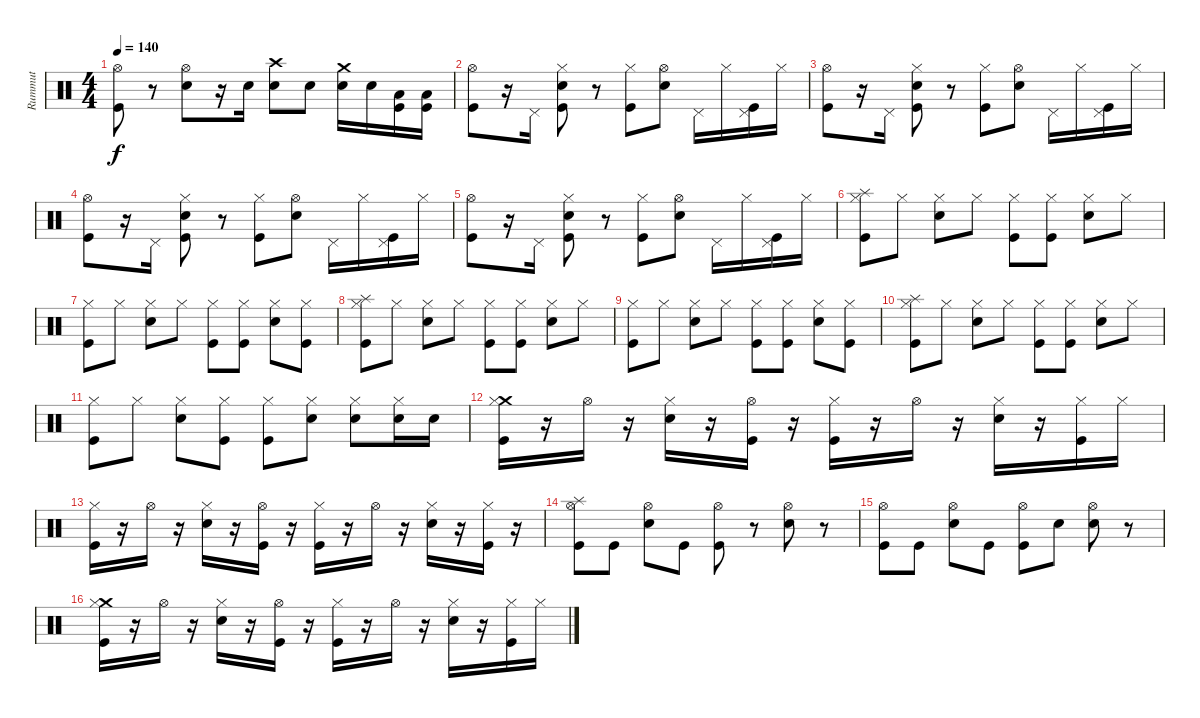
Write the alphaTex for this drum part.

\track ("Rummut" "Rummut") {instrument percussion}
\staff {score}
\articulation defaults
\ts (4 4)
\tempo 140
\clef neutral
\ks c
("Hi-Hat (open)" "Kick (hit)").8{dy f} r.8 ("Hi-Hat (open)" "Snare (hit) 2").8 r.16 "Snare (hit) 2".16 ("Crash high (hit)" "Snare (hit) 2").8 "Snare (hit) 2".8 ("Crash medium (hit)" "Snare (hit) 2").16 "Snare (hit) 2".16 ("Low Tom (hit)" "Kick (hit)").16 ("Low Tom (hit)" "Kick (hit)").16 |
("Hi-Hat (open)" "Kick (hit)").8 r.16 "Pedal Hi-Hat (hit)".16 ("Hi-Hat (closed)" "Kick (hit)" "Snare (hit) 2").8 r.8 ("Hi-Hat (closed)" "Kick (hit)").8 ("Hi-Hat (open)" "Snare (hit) 2").8 "Pedal Hi-Hat (hit)".16 "Hi-Hat (closed)".16 ("Pedal Hi-Hat (hit)" "Kick (hit)").16 "Hi-Hat (closed)".16 |
("Hi-Hat (open)" "Kick (hit)").8 r.16 "Pedal Hi-Hat (hit)".16 ("Hi-Hat (closed)" "Kick (hit)" "Snare (hit) 2").8 r.8 ("Hi-Hat (closed)" "Kick (hit)").8 ("Hi-Hat (open)" "Snare (hit) 2").8 "Pedal Hi-Hat (hit)".16 "Hi-Hat (closed)".16 ("Pedal Hi-Hat (hit)" "Kick (hit)").16 "Hi-Hat (closed)".16 |
("Hi-Hat (open)" "Kick (hit)").8 r.16 "Pedal Hi-Hat (hit)".16 ("Hi-Hat (closed)" "Kick (hit)" "Snare (hit) 2").8 r.8 ("Hi-Hat (closed)" "Kick (hit)").8 ("Hi-Hat (open)" "Snare (hit) 2").8 "Pedal Hi-Hat (hit)".16 "Hi-Hat (closed)".16 ("Pedal Hi-Hat (hit)" "Kick (hit)").16 "Hi-Hat (closed)".16 |
("Hi-Hat (open)" "Kick (hit)").8 r.16 "Pedal Hi-Hat (hit)".16 ("Hi-Hat (closed)" "Kick (hit)" "Snare (hit) 2").8 r.8 ("Hi-Hat (closed)" "Kick (hit)").8 ("Hi-Hat (open)" "Snare (hit) 2").8 "Pedal Hi-Hat (hit)".16 "Hi-Hat (closed)".16 ("Pedal Hi-Hat (hit)" "Kick (hit)").16 "Hi-Hat (closed)".16 |
("Splash (hit)" "Hi-Hat (closed)" "Kick (hit)").8 "Hi-Hat (closed)".8 ("Hi-Hat (closed)" "Snare (hit) 2").8 "Hi-Hat (closed)".8 ("Hi-Hat (closed)" "Kick (hit)").8 ("Hi-Hat (closed)" "Kick (hit)").8 ("Hi-Hat (closed)" "Snare (hit) 2").8 "Hi-Hat (closed)".8 |
("Hi-Hat (closed)" "Kick (hit)").8 "Hi-Hat (closed)".8 ("Hi-Hat (closed)" "Snare (hit) 2").8 "Hi-Hat (closed)".8 ("Hi-Hat (closed)" "Kick (hit)").8 ("Hi-Hat (closed)" "Kick (hit)").8 ("Hi-Hat (closed)" "Snare (hit) 2").8 ("Hi-Hat (closed)" "Kick (hit)").8 |
("Splash (hit)" "Hi-Hat (closed)" "Kick (hit)").8 "Hi-Hat (closed)".8 ("Hi-Hat (closed)" "Snare (hit) 2").8 "Hi-Hat (closed)".8 ("Hi-Hat (closed)" "Kick (hit)").8 ("Hi-Hat (closed)" "Kick (hit)").8 ("Hi-Hat (closed)" "Snare (hit) 2").8 "Hi-Hat (closed)".8 |
("Hi-Hat (closed)" "Kick (hit)").8 "Hi-Hat (closed)".8 ("Hi-Hat (closed)" "Snare (hit) 2").8 "Hi-Hat (closed)".8 ("Hi-Hat (closed)" "Kick (hit)").8 ("Hi-Hat (closed)" "Kick (hit)").8 ("Hi-Hat (closed)" "Snare (hit) 2").8 ("Hi-Hat (closed)" "Kick (hit)").8 |
("Splash (hit)" "Hi-Hat (closed)" "Kick (hit)").8 "Hi-Hat (closed)".8 ("Hi-Hat (closed)" "Snare (hit) 2").8 "Hi-Hat (closed)".8 ("Hi-Hat (closed)" "Kick (hit)").8 ("Hi-Hat (closed)" "Kick (hit)").8 ("Hi-Hat (closed)" "Snare (hit) 2").8 "Hi-Hat (closed)".8 |
("Hi-Hat (closed)" "Kick (hit)").8 "Hi-Hat (closed)".8 ("Hi-Hat (closed)" "Snare (hit) 2").8 ("Hi-Hat (closed)" "Kick (hit)").8 ("Hi-Hat (closed)" "Kick (hit)").8 ("Hi-Hat (closed)" "Snare (hit) 2").8 ("Hi-Hat (closed)" "Snare (hit) 2").8 ("Hi-Hat (closed)" "Snare (hit) 2").16 "Snare (hit) 2".16 |
("Crash medium (hit)" "Hi-Hat (closed)" "Kick (hit)").16 r.16 "Hi-Hat (open)".16 r.16 ("Hi-Hat (closed)" "Snare (hit) 2").16 r.16 ("Hi-Hat (open)" "Kick (hit)").16 r.16 ("Hi-Hat (closed)" "Kick (hit)").16 r.16 "Hi-Hat (open)".16 r.16 ("Hi-Hat (closed)" "Snare (hit) 2").16 r.16 ("Hi-Hat (closed)" "Kick (hit)").16 "Hi-Hat (closed)".16 |
("Hi-Hat (closed)" "Kick (hit)").16 r.16 "Hi-Hat (open)".16 r.16 ("Hi-Hat (closed)" "Snare (hit) 2").16 r.16 ("Hi-Hat (open)" "Kick (hit)").16 r.16 ("Hi-Hat (closed)" "Kick (hit)").16 r.16 "Hi-Hat (open)".16 r.16 ("Hi-Hat (closed)" "Snare (hit) 2").16 r.16 ("Hi-Hat (closed)" "Kick (hit)").16 r.16 |
("Splash (hit)" "Hi-Hat (open)" "Kick (hit)").8 "Kick (hit)".8 ("Hi-Hat (open)" "Snare (hit) 2").8 "Kick (hit)".8 ("Hi-Hat (open)" "Kick (hit)").8 r.8 ("Hi-Hat (open)" "Snare (hit) 2").8 r.8 |
("Hi-Hat (open)" "Kick (hit)").8 "Kick (hit)".8 ("Hi-Hat (open)" "Snare (hit) 2").8 "Kick (hit)".8 ("Hi-Hat (open)" "Kick (hit)").8 "Snare (hit) 2".8 ("Hi-Hat (open)" "Snare (hit) 2").8 r.8 |
("Crash medium (hit)" "Hi-Hat (closed)" "Kick (hit)").16 r.16 "Hi-Hat (open)".16 r.16 ("Hi-Hat (closed)" "Snare (hit) 2").16 r.16 ("Hi-Hat (open)" "Kick (hit)").16 r.16 ("Hi-Hat (closed)" "Kick (hit)").16 r.16 "Hi-Hat (open)".16 r.16 ("Hi-Hat (closed)" "Snare (hit) 2").16 r.16 ("Hi-Hat (closed)" "Kick (hit)").16 "Hi-Hat (closed)".16
